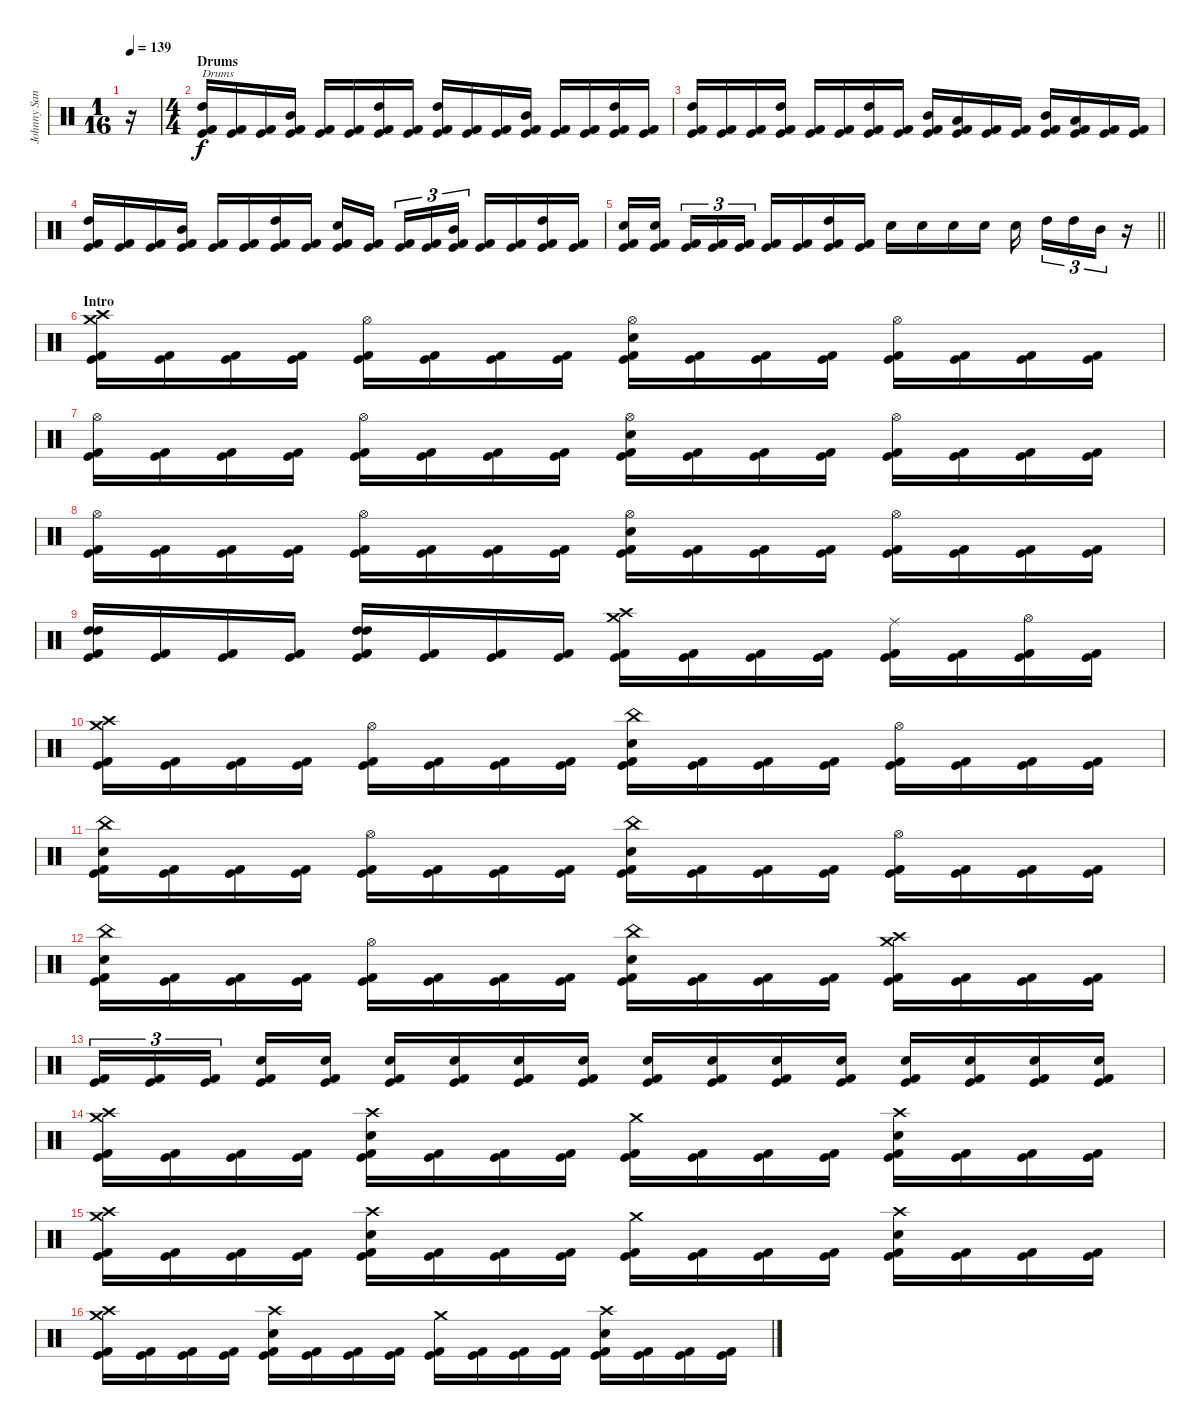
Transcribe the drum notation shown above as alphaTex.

\track ("Johnny Sandin" "Johnny San") {instrument percussion}
\staff {score}
\articulation defaults
\ts (1 16)
\tempo 139
\clef neutral
\ks c
r.16{dy f volume 3} |
\ts (4 4)
\section ("" "Drums")
("High Tom (hit)" "Kick (hit) 2" "Kick (hit)").16{txt "Drums" volume 13} ("Kick (hit) 2" "Kick (hit)").16 ("Kick (hit) 2" "Kick (hit)").16 ("Mid Tom (hit)" "Kick (hit) 2" "Kick (hit)").16 ("Kick (hit) 2" "Kick (hit)").16 ("Kick (hit) 2" "Kick (hit)").16 ("High Tom (hit)" "Kick (hit) 2" "Kick (hit)").16 ("Kick (hit) 2" "Kick (hit)").16 ("High Tom (hit)" "Kick (hit) 2" "Kick (hit)").16 ("Kick (hit) 2" "Kick (hit)").16 ("Kick (hit) 2" "Kick (hit)").16 ("Mid Tom (hit)" "Kick (hit) 2" "Kick (hit)").16 ("Kick (hit) 2" "Kick (hit)").16 ("Kick (hit) 2" "Kick (hit)").16 ("High Tom (hit)" "Kick (hit) 2" "Kick (hit)").16 ("Kick (hit) 2" "Kick (hit)").16 |
("High Tom (hit)" "Kick (hit) 2" "Kick (hit)").16 ("Kick (hit) 2" "Kick (hit)").16 ("Kick (hit) 2" "Kick (hit)").16 ("High Tom (hit)" "Kick (hit) 2" "Kick (hit)").16 ("Kick (hit) 2" "Kick (hit)").16 ("Kick (hit) 2" "Kick (hit)").16 ("High Tom (hit)" "Kick (hit) 2" "Kick (hit)").16 ("Kick (hit) 2" "Kick (hit)").16 ("Mid Tom (hit)" "Kick (hit) 2" "Kick (hit)").16 ("Low Tom (hit)" "Kick (hit) 2" "Kick (hit)").16 ("Kick (hit) 2" "Kick (hit)").16 ("Kick (hit) 2" "Kick (hit)").16 ("Mid Tom (hit)" "Kick (hit) 2" "Kick (hit)").16 ("Low Tom (hit)" "Kick (hit) 2" "Kick (hit)").16 ("Kick (hit) 2" "Kick (hit)").16 ("Kick (hit) 2" "Kick (hit)").16 |
("High Tom (hit)" "Kick (hit) 2" "Kick (hit)").16 ("Kick (hit) 2" "Kick (hit)").16 ("Kick (hit) 2" "Kick (hit)").16 ("Mid Tom (hit)" "Kick (hit) 2" "Kick (hit)").16 ("Kick (hit) 2" "Kick (hit)").16 ("Kick (hit) 2" "Kick (hit)").16 ("High Tom (hit)" "Kick (hit) 2" "Kick (hit)").16 ("Kick (hit) 2" "Kick (hit)").16 ("Snare (hit) 2" "Kick (hit) 2" "Kick (hit)").16 ("Kick (hit) 2" "Kick (hit)").16 ("Kick (hit) 2" "Kick (hit)").16{tu (3 2)} ("Kick (hit) 2" "Kick (hit)").16{tu (3 2)} ("Mid Tom (hit)" "Kick (hit) 2" "Kick (hit)").16{tu (3 2)} ("Kick (hit) 2" "Kick (hit)").16 ("Kick (hit) 2" "Kick (hit)").16 ("High Tom (hit)" "Kick (hit) 2" "Kick (hit)").16 ("Kick (hit) 2" "Kick (hit)").16 |
\barLineRight lightlight
("Snare (hit) 2" "Kick (hit) 2" "Kick (hit)").16 ("Snare (hit) 2" "Kick (hit) 2" "Kick (hit)").16 ("Kick (hit) 2" "Kick (hit)").16{tu (3 2)} ("Kick (hit) 2" "Kick (hit)").16{tu (3 2)} ("Kick (hit) 2" "Kick (hit)").16{tu (3 2)} ("Kick (hit) 2" "Kick (hit)").16 ("Kick (hit) 2" "Kick (hit)").16 ("High Tom (hit)" "Kick (hit) 2" "Kick (hit)").16 ("Kick (hit) 2" "Kick (hit)").16 "Snare (hit) 2".16 "Snare (hit) 2".16 "Snare (hit) 2".16 "Snare (hit) 2".16 "Snare (hit) 2".16 "High Tom (hit)".16{tu (3 2)} "High Tom (hit)".16{tu (3 2)} "Mid Tom (hit)".16{tu (3 2)} r.16 |
\section ("" "Intro")
("Crash medium (hit)" "Crash high (hit)" "Kick (hit) 2" "Kick (hit)").16 ("Kick (hit) 2" "Kick (hit)").16 ("Kick (hit) 2" "Kick (hit)").16 ("Kick (hit) 2" "Kick (hit)").16 ("Hi-Hat (open)" "Kick (hit) 2" "Kick (hit)").16 ("Kick (hit) 2" "Kick (hit)").16 ("Kick (hit) 2" "Kick (hit)").16 ("Kick (hit) 2" "Kick (hit)").16 ("Hi-Hat (open)" "Snare (hit) 2" "Kick (hit) 2" "Kick (hit)").16 ("Kick (hit) 2" "Kick (hit)").16 ("Kick (hit) 2" "Kick (hit)").16 ("Kick (hit) 2" "Kick (hit)").16 ("Hi-Hat (open)" "Kick (hit) 2" "Kick (hit)").16 ("Kick (hit) 2" "Kick (hit)").16 ("Kick (hit) 2" "Kick (hit)").16 ("Kick (hit) 2" "Kick (hit)").16 |
("Hi-Hat (open)" "Kick (hit) 2" "Kick (hit)").16 ("Kick (hit) 2" "Kick (hit)").16 ("Kick (hit) 2" "Kick (hit)").16 ("Kick (hit) 2" "Kick (hit)").16 ("Hi-Hat (open)" "Kick (hit) 2" "Kick (hit)").16 ("Kick (hit) 2" "Kick (hit)").16 ("Kick (hit) 2" "Kick (hit)").16 ("Kick (hit) 2" "Kick (hit)").16 ("Hi-Hat (open)" "Snare (hit) 2" "Kick (hit) 2" "Kick (hit)").16 ("Kick (hit) 2" "Kick (hit)").16 ("Kick (hit) 2" "Kick (hit)").16 ("Kick (hit) 2" "Kick (hit)").16 ("Hi-Hat (open)" "Kick (hit) 2" "Kick (hit)").16 ("Kick (hit) 2" "Kick (hit)").16 ("Kick (hit) 2" "Kick (hit)").16 ("Kick (hit) 2" "Kick (hit)").16 |
("Hi-Hat (open)" "Kick (hit) 2" "Kick (hit)").16 ("Kick (hit) 2" "Kick (hit)").16 ("Kick (hit) 2" "Kick (hit)").16 ("Kick (hit) 2" "Kick (hit)").16 ("Hi-Hat (open)" "Kick (hit) 2" "Kick (hit)").16 ("Kick (hit) 2" "Kick (hit)").16 ("Kick (hit) 2" "Kick (hit)").16 ("Kick (hit) 2" "Kick (hit)").16 ("Hi-Hat (open)" "Snare (hit) 2" "Kick (hit) 2" "Kick (hit)").16 ("Kick (hit) 2" "Kick (hit)").16 ("Kick (hit) 2" "Kick (hit)").16 ("Kick (hit) 2" "Kick (hit)").16 ("Hi-Hat (open)" "Kick (hit) 2" "Kick (hit)").16 ("Kick (hit) 2" "Kick (hit)").16 ("Kick (hit) 2" "Kick (hit)").16 ("Kick (hit) 2" "Kick (hit)").16 |
("High Tom (hit)" "High Tom (hit)" "Kick (hit) 2" "Kick (hit)").16 ("Kick (hit) 2" "Kick (hit)").16 ("Kick (hit) 2" "Kick (hit)").16 ("Kick (hit) 2" "Kick (hit)").16 ("High Tom (hit)" "High Tom (hit)" "Kick (hit) 2" "Kick (hit)").16 ("Kick (hit) 2" "Kick (hit)").16 ("Kick (hit) 2" "Kick (hit)").16 ("Kick (hit) 2" "Kick (hit)").16 ("Crash medium (hit)" "Crash high (hit)" "Kick (hit) 2" "Kick (hit)").16 ("Kick (hit) 2" "Kick (hit)").16 ("Kick (hit) 2" "Kick (hit)").16 ("Kick (hit) 2" "Kick (hit)").16 ("Ride (middle)" "Kick (hit) 2" "Kick (hit)").16 ("Kick (hit) 2" "Kick (hit)").16 ("Hi-Hat (open)" "Kick (hit) 2" "Kick (hit)").16 ("Kick (hit) 2" "Kick (hit)").16 |
("Crash medium (hit)" "Crash high (hit)" "Kick (hit) 2" "Kick (hit)").16 ("Kick (hit) 2" "Kick (hit)").16 ("Kick (hit) 2" "Kick (hit)").16 ("Kick (hit) 2" "Kick (hit)").16 ("Hi-Hat (open)" "Kick (hit) 2" "Kick (hit)").16 ("Kick (hit) 2" "Kick (hit)").16 ("Kick (hit) 2" "Kick (hit)").16 ("Kick (hit) 2" "Kick (hit)").16 ("China (hit)" "Snare (hit) 2" "Kick (hit) 2" "Kick (hit)").16 ("Kick (hit) 2" "Kick (hit)").16 ("Kick (hit) 2" "Kick (hit)").16 ("Kick (hit) 2" "Kick (hit)").16 ("Hi-Hat (open)" "Kick (hit) 2" "Kick (hit)").16 ("Kick (hit) 2" "Kick (hit)").16 ("Kick (hit) 2" "Kick (hit)").16 ("Kick (hit) 2" "Kick (hit)").16 |
("China (hit)" "Snare (hit) 2" "Kick (hit) 2" "Kick (hit)").16 ("Kick (hit) 2" "Kick (hit)").16 ("Kick (hit) 2" "Kick (hit)").16 ("Kick (hit) 2" "Kick (hit)").16 ("Hi-Hat (open)" "Kick (hit) 2" "Kick (hit)").16 ("Kick (hit) 2" "Kick (hit)").16 ("Kick (hit) 2" "Kick (hit)").16 ("Kick (hit) 2" "Kick (hit)").16 ("China (hit)" "Snare (hit) 2" "Kick (hit) 2" "Kick (hit)").16 ("Kick (hit) 2" "Kick (hit)").16 ("Kick (hit) 2" "Kick (hit)").16 ("Kick (hit) 2" "Kick (hit)").16 ("Hi-Hat (open)" "Kick (hit) 2" "Kick (hit)").16 ("Kick (hit) 2" "Kick (hit)").16 ("Kick (hit) 2" "Kick (hit)").16 ("Kick (hit) 2" "Kick (hit)").16 |
("China (hit)" "Snare (hit) 2" "Kick (hit) 2" "Kick (hit)").16 ("Kick (hit) 2" "Kick (hit)").16 ("Kick (hit) 2" "Kick (hit)").16 ("Kick (hit) 2" "Kick (hit)").16 ("Hi-Hat (open)" "Kick (hit) 2" "Kick (hit)").16 ("Kick (hit) 2" "Kick (hit)").16 ("Kick (hit) 2" "Kick (hit)").16 ("Kick (hit) 2" "Kick (hit)").16 ("China (hit)" "Snare (hit) 2" "Kick (hit) 2" "Kick (hit)").16 ("Kick (hit) 2" "Kick (hit)").16 ("Kick (hit) 2" "Kick (hit)").16 ("Kick (hit) 2" "Kick (hit)").16 ("Crash medium (hit)" "Crash high (hit)" "Kick (hit) 2" "Kick (hit)").16 ("Kick (hit) 2" "Kick (hit)").16 ("Kick (hit) 2" "Kick (hit)").16 ("Kick (hit) 2" "Kick (hit)").16 |
("Kick (hit) 2" "Kick (hit)").16{tu (3 2)} ("Kick (hit) 2" "Kick (hit)").16{tu (3 2)} ("Kick (hit) 2" "Kick (hit)").16{tu (3 2)} ("Snare (hit) 2" "Kick (hit) 2" "Kick (hit)").16 ("Snare (hit) 2" "Kick (hit) 2" "Kick (hit)").16 ("Snare (hit) 2" "Kick (hit) 2" "Kick (hit)").16 ("Snare (hit) 2" "Kick (hit) 2" "Kick (hit)").16 ("Snare (hit) 2" "Kick (hit) 2" "Kick (hit)").16 ("Snare (hit) 2" "Kick (hit) 2" "Kick (hit)").16 ("Snare (hit) 2" "Kick (hit) 2" "Kick (hit)").16 ("Snare (hit) 2" "Kick (hit) 2" "Kick (hit)").16 ("Snare (hit) 2" "Kick (hit) 2" "Kick (hit)").16 ("Snare (hit) 2" "Kick (hit) 2" "Kick (hit)").16 ("Snare (hit) 2" "Kick (hit) 2" "Kick (hit)").16 ("Snare (hit) 2" "Kick (hit) 2" "Kick (hit)").16 ("Snare (hit) 2" "Kick (hit) 2" "Kick (hit)").16 ("Snare (hit) 2" "Kick (hit) 2" "Kick (hit)").16 |
("Crash medium (hit)" "Crash high (hit)" "Kick (hit) 2" "Kick (hit)").16 ("Kick (hit) 2" "Kick (hit)").16 ("Kick (hit) 2" "Kick (hit)").16 ("Kick (hit) 2" "Kick (hit)").16 ("Crash high (hit)" "Snare (hit) 2" "Kick (hit) 2" "Kick (hit)").16 ("Kick (hit) 2" "Kick (hit)").16 ("Kick (hit) 2" "Kick (hit)").16 ("Kick (hit) 2" "Kick (hit)").16 ("Crash medium (hit)" "Kick (hit) 2" "Kick (hit)").16 ("Kick (hit) 2" "Kick (hit)").16 ("Kick (hit) 2" "Kick (hit)").16 ("Kick (hit) 2" "Kick (hit)").16 ("Crash high (hit)" "Snare (hit) 2" "Kick (hit) 2" "Kick (hit)").16 ("Kick (hit) 2" "Kick (hit)").16 ("Kick (hit) 2" "Kick (hit)").16 ("Kick (hit) 2" "Kick (hit)").16 |
("Crash medium (hit)" "Crash high (hit)" "Kick (hit) 2" "Kick (hit)").16 ("Kick (hit) 2" "Kick (hit)").16 ("Kick (hit) 2" "Kick (hit)").16 ("Kick (hit) 2" "Kick (hit)").16 ("Crash high (hit)" "Snare (hit) 2" "Kick (hit) 2" "Kick (hit)").16 ("Kick (hit) 2" "Kick (hit)").16 ("Kick (hit) 2" "Kick (hit)").16 ("Kick (hit) 2" "Kick (hit)").16 ("Crash medium (hit)" "Kick (hit) 2" "Kick (hit)").16 ("Kick (hit) 2" "Kick (hit)").16 ("Kick (hit) 2" "Kick (hit)").16 ("Kick (hit) 2" "Kick (hit)").16 ("Crash high (hit)" "Snare (hit) 2" "Kick (hit) 2" "Kick (hit)").16 ("Kick (hit) 2" "Kick (hit)").16 ("Kick (hit) 2" "Kick (hit)").16 ("Kick (hit) 2" "Kick (hit)").16 |
("Crash medium (hit)" "Crash high (hit)" "Kick (hit) 2" "Kick (hit)").16 ("Kick (hit) 2" "Kick (hit)").16 ("Kick (hit) 2" "Kick (hit)").16 ("Kick (hit) 2" "Kick (hit)").16 ("Crash high (hit)" "Snare (hit) 2" "Kick (hit) 2" "Kick (hit)").16 ("Kick (hit) 2" "Kick (hit)").16 ("Kick (hit) 2" "Kick (hit)").16 ("Kick (hit) 2" "Kick (hit)").16 ("Crash medium (hit)" "Kick (hit) 2" "Kick (hit)").16 ("Kick (hit) 2" "Kick (hit)").16 ("Kick (hit) 2" "Kick (hit)").16 ("Kick (hit) 2" "Kick (hit)").16 ("Crash high (hit)" "Snare (hit) 2" "Kick (hit) 2" "Kick (hit)").16 ("Kick (hit) 2" "Kick (hit)").16 ("Kick (hit) 2" "Kick (hit)").16 ("Kick (hit) 2" "Kick (hit)").16
